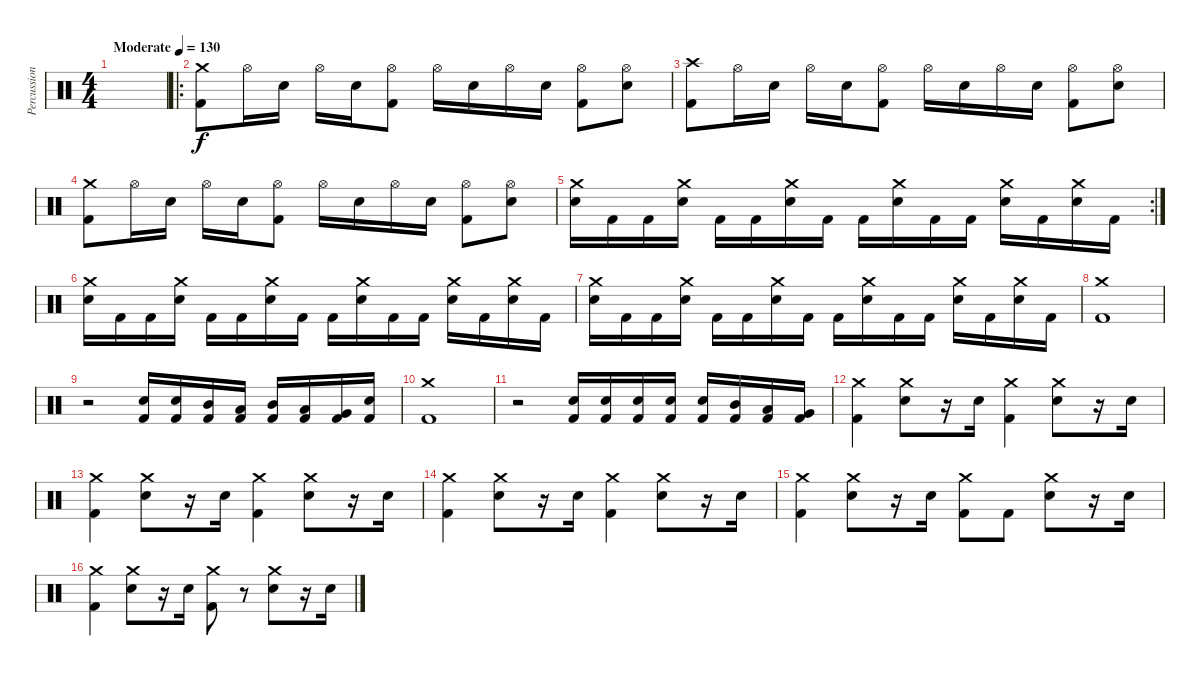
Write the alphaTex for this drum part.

\track ("Percussions" "Percussion") {instrument percussion}
\staff {score}
\articulation defaults
\ts (4 4)
\tempo (130 "Moderate")
\clef neutral
\ks c
|
\ro
("Kick (hit) 2" "Crash medium (hit)").8 "Hi-Hat (open)".16 "Electric Snare (hit)".16 "Hi-Hat (open)".16 "Electric Snare (hit)".16 ("Kick (hit) 2" "Hi-Hat (open)").8 "Hi-Hat (open)".16 "Electric Snare (hit)".16 "Hi-Hat (open)".16 "Electric Snare (hit)".16 ("Kick (hit) 2" "Hi-Hat (open)").8 ("Electric Snare (hit)" "Hi-Hat (open)").8 |
("Kick (hit) 2" "Crash high (hit)").8 "Hi-Hat (open)".16 "Electric Snare (hit)".16 "Hi-Hat (open)".16 "Electric Snare (hit)".16 ("Kick (hit) 2" "Hi-Hat (open)").8 "Hi-Hat (open)".16 "Electric Snare (hit)".16 "Hi-Hat (open)".16 "Electric Snare (hit)".16 ("Kick (hit) 2" "Hi-Hat (open)").8 ("Electric Snare (hit)" "Hi-Hat (open)").8 |
("Kick (hit) 2" "Crash medium (hit)").8 "Hi-Hat (open)".16 "Electric Snare (hit)".16 "Hi-Hat (open)".16 "Electric Snare (hit)".16 ("Kick (hit) 2" "Hi-Hat (open)").8 "Hi-Hat (open)".16 "Electric Snare (hit)".16 "Hi-Hat (open)".16 "Electric Snare (hit)".16 ("Kick (hit) 2" "Hi-Hat (open)").8 ("Electric Snare (hit)" "Hi-Hat (open)").8 |
\rc 2
("Crash medium (hit)" "Electric Snare (hit)").16 "Kick (hit) 2".16 "Kick (hit) 2".16 ("Crash medium (hit)" "Electric Snare (hit)").16 "Kick (hit) 2".16 "Kick (hit) 2".16 ("Crash medium (hit)" "Electric Snare (hit)").16 "Kick (hit) 2".16 "Kick (hit) 2".16 ("Crash medium (hit)" "Electric Snare (hit)").16 "Kick (hit) 2".16 "Kick (hit) 2".16 ("Crash medium (hit)" "Electric Snare (hit)").16 "Kick (hit) 2".16 ("Crash medium (hit)" "Electric Snare (hit)").16 "Kick (hit) 2".16 |
("Crash medium (hit)" "Electric Snare (hit)").16 "Kick (hit) 2".16 "Kick (hit) 2".16 ("Crash medium (hit)" "Electric Snare (hit)").16 "Kick (hit) 2".16 "Kick (hit) 2".16 ("Crash medium (hit)" "Electric Snare (hit)").16 "Kick (hit) 2".16 "Kick (hit) 2".16 ("Crash medium (hit)" "Electric Snare (hit)").16 "Kick (hit) 2".16 "Kick (hit) 2".16 ("Crash medium (hit)" "Electric Snare (hit)").16 "Kick (hit) 2".16 ("Crash medium (hit)" "Electric Snare (hit)").16 "Kick (hit) 2".16 |
("Crash medium (hit)" "Electric Snare (hit)").16 "Kick (hit) 2".16 "Kick (hit) 2".16 ("Crash medium (hit)" "Electric Snare (hit)").16 "Kick (hit) 2".16 "Kick (hit) 2".16 ("Crash medium (hit)" "Electric Snare (hit)").16 "Kick (hit) 2".16 "Kick (hit) 2".16 ("Crash medium (hit)" "Electric Snare (hit)").16 "Kick (hit) 2".16 "Kick (hit) 2".16 ("Crash medium (hit)" "Electric Snare (hit)").16 "Kick (hit) 2".16 ("Crash medium (hit)" "Electric Snare (hit)").16 "Kick (hit) 2".16 |
("Kick (hit) 2" "Crash medium (hit)").1 |
r.2 ("Electric Snare (hit)" "Kick (hit) 2").16 ("Electric Snare (hit)" "Kick (hit) 2").16 ("Mid Tom (hit)" "Kick (hit) 2").16 ("Low Tom (hit)" "Kick (hit) 2").16 ("Mid Tom (hit)" "Kick (hit) 2").16 ("Low Tom (hit)" "Kick (hit) 2").16 ("Very Low Tom (hit)" "Kick (hit) 2").16 ("Electric Snare (hit)" "Kick (hit) 2").16 |
("Kick (hit) 2" "Crash medium (hit)").1 |
r.2 ("Electric Snare (hit)" "Kick (hit) 2").16 ("Electric Snare (hit)" "Kick (hit) 2").16 ("Electric Snare (hit)" "Kick (hit) 2").16 ("Electric Snare (hit)" "Kick (hit) 2").16 ("Electric Snare (hit)" "Kick (hit) 2").16 ("Mid Tom (hit)" "Kick (hit) 2").16 ("Low Tom (hit)" "Kick (hit) 2").16 ("Very Low Tom (hit)" "Kick (hit) 2").16 |
("Kick (hit) 2" "Crash medium (hit)").4 ("Electric Snare (hit)" "Crash medium (hit)").8 r.16 "Electric Snare (hit)".16 ("Kick (hit) 2" "Crash medium (hit)").4 ("Electric Snare (hit)" "Crash medium (hit)").8 r.16 "Electric Snare (hit)".16 |
("Kick (hit) 2" "Crash medium (hit)").4 ("Electric Snare (hit)" "Crash medium (hit)").8 r.16 "Electric Snare (hit)".16 ("Kick (hit) 2" "Crash medium (hit)").4 ("Electric Snare (hit)" "Crash medium (hit)").8 r.16 "Electric Snare (hit)".16 |
("Kick (hit) 2" "Crash medium (hit)").4 ("Electric Snare (hit)" "Crash medium (hit)").8 r.16 "Electric Snare (hit)".16 ("Kick (hit) 2" "Crash medium (hit)").4 ("Electric Snare (hit)" "Crash medium (hit)").8 r.16 "Electric Snare (hit)".16 |
("Kick (hit) 2" "Crash medium (hit)").4 ("Electric Snare (hit)" "Crash medium (hit)").8 r.16 "Electric Snare (hit)".16 ("Kick (hit) 2" "Crash medium (hit)").8 "Kick (hit) 2".8 ("Electric Snare (hit)" "Crash medium (hit)").8 r.16 "Electric Snare (hit)".16 |
("Kick (hit) 2" "Crash medium (hit)").4 ("Electric Snare (hit)" "Crash medium (hit)").8 r.16 "Electric Snare (hit)".16 ("Kick (hit) 2" "Crash medium (hit)").8 r.8 ("Electric Snare (hit)" "Crash medium (hit)").8 r.16 "Electric Snare (hit)".16
